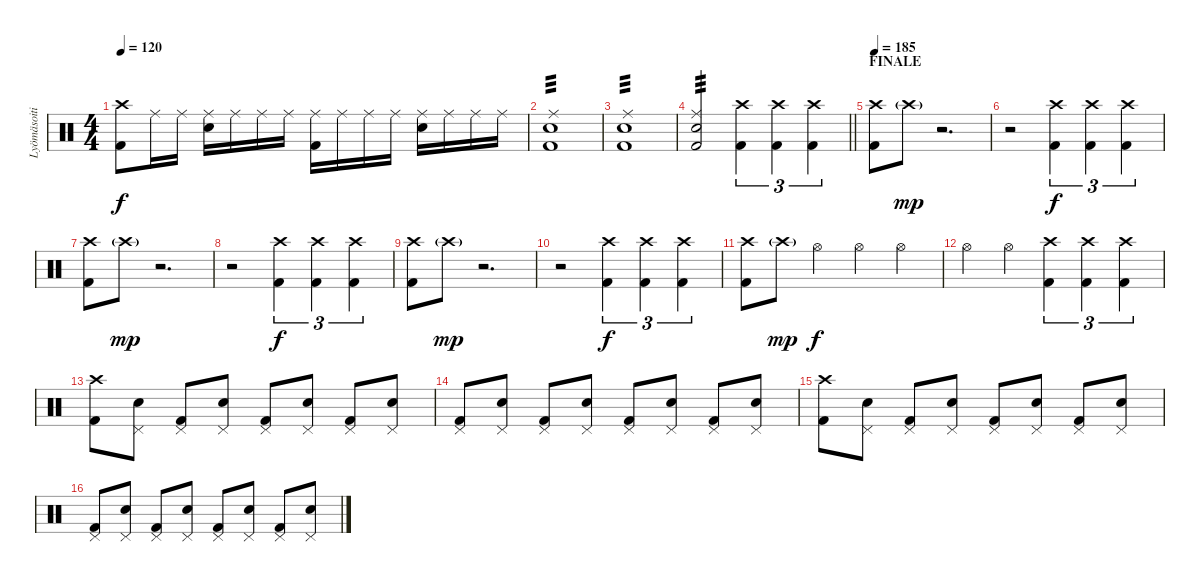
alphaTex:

\track ("Lyömäsoitin" "Lyömäsoiti") {instrument percussion}
\staff {score}
\articulation defaults
\ts (4 4)
\tempo 120
\clef neutral
\ks c
("Crash high (hit)" "Kick (hit) 2").8{dy f} "Ride (middle)".16 "Ride (middle)".16 ("Ride (middle)" "Electric Snare (hit)").16 "Ride (middle)".16 "Ride (middle)".16 "Ride (middle)".16 ("Ride (middle)" "Kick (hit) 2").16 "Ride (middle)".16 "Ride (middle)".16 "Ride (middle)".16 ("Ride (middle)" "Electric Snare (hit)").16 "Ride (middle)".16 "Ride (middle)".16 "Ride (middle)".16 |
("Ride (middle)" "Electric Snare (hit)" "Kick (hit) 2").1{tp 3} |
("Ride (middle)" "Electric Snare (hit)" "Kick (hit) 2").1{tp 3} |
\barLineRight lightlight
("Ride (middle)" "Electric Snare (hit)" "Kick (hit) 2").2{tp 3} ("Crash high (hit)" "Kick (hit) 2").4{tu (3 2)} ("Crash high (hit)" "Kick (hit) 2").4{tu (3 2)} ("Crash high (hit)" "Kick (hit) 2").4{tu (3 2)} |
\section ("" "FINALE")
\tempo 185
("Crash high (hit)" "Kick (hit) 2").8 "Crash high (hit)"{g}.8{dy mp} r.2{d} |
r.2 ("Crash high (hit)" "Kick (hit) 2").4{tu (3 2) dy f} ("Crash high (hit)" "Kick (hit) 2").4{tu (3 2)} ("Crash high (hit)" "Kick (hit) 2").4{tu (3 2)} |
("Crash high (hit)" "Kick (hit) 2").8 "Crash high (hit)"{g}.8{dy mp} r.2{d} |
r.2 ("Crash high (hit)" "Kick (hit) 2").4{tu (3 2) dy f} ("Crash high (hit)" "Kick (hit) 2").4{tu (3 2)} ("Crash high (hit)" "Kick (hit) 2").4{tu (3 2)} |
("Crash high (hit)" "Kick (hit) 2").8 "Crash high (hit)"{g}.8{dy mp} r.2{d} |
r.2 ("Crash high (hit)" "Kick (hit) 2").4{tu (3 2) dy f} ("Crash high (hit)" "Kick (hit) 2").4{tu (3 2)} ("Crash high (hit)" "Kick (hit) 2").4{tu (3 2)} |
("Crash high (hit)" "Kick (hit) 2").8 "Crash high (hit)"{g}.8{dy mp} "Hi-Hat (open)".4{dy f} "Hi-Hat (open)".4 "Hi-Hat (open)".4 |
"Hi-Hat (open)".4 "Hi-Hat (open)".4 ("Crash high (hit)" "Kick (hit) 2").4{tu (3 2)} ("Crash high (hit)" "Kick (hit) 2").4{tu (3 2)} ("Crash high (hit)" "Kick (hit) 2").4{tu (3 2)} |
("Crash high (hit)" "Kick (hit) 2").8 ("Pedal Hi-Hat (hit)" "Electric Snare (hit)").8 ("Pedal Hi-Hat (hit)" "Kick (hit) 2").8 ("Pedal Hi-Hat (hit)" "Electric Snare (hit)").8 ("Pedal Hi-Hat (hit)" "Kick (hit) 2").8 ("Pedal Hi-Hat (hit)" "Electric Snare (hit)").8 ("Pedal Hi-Hat (hit)" "Kick (hit) 2").8 ("Pedal Hi-Hat (hit)" "Electric Snare (hit)").8 |
("Pedal Hi-Hat (hit)" "Kick (hit) 2").8 ("Pedal Hi-Hat (hit)" "Electric Snare (hit)").8 ("Pedal Hi-Hat (hit)" "Kick (hit) 2").8 ("Pedal Hi-Hat (hit)" "Electric Snare (hit)").8 ("Pedal Hi-Hat (hit)" "Kick (hit) 2").8 ("Pedal Hi-Hat (hit)" "Electric Snare (hit)").8 ("Pedal Hi-Hat (hit)" "Kick (hit) 2").8 ("Pedal Hi-Hat (hit)" "Electric Snare (hit)").8 |
("Crash high (hit)" "Kick (hit) 2").8 ("Pedal Hi-Hat (hit)" "Electric Snare (hit)").8 ("Pedal Hi-Hat (hit)" "Kick (hit) 2").8 ("Pedal Hi-Hat (hit)" "Electric Snare (hit)").8 ("Pedal Hi-Hat (hit)" "Kick (hit) 2").8 ("Pedal Hi-Hat (hit)" "Electric Snare (hit)").8 ("Pedal Hi-Hat (hit)" "Kick (hit) 2").8 ("Pedal Hi-Hat (hit)" "Electric Snare (hit)").8 |
("Pedal Hi-Hat (hit)" "Kick (hit) 2").8 ("Pedal Hi-Hat (hit)" "Electric Snare (hit)").8 ("Pedal Hi-Hat (hit)" "Kick (hit) 2").8 ("Pedal Hi-Hat (hit)" "Electric Snare (hit)").8 ("Pedal Hi-Hat (hit)" "Kick (hit) 2").8 ("Pedal Hi-Hat (hit)" "Electric Snare (hit)").8 ("Pedal Hi-Hat (hit)" "Kick (hit) 2").8 ("Pedal Hi-Hat (hit)" "Electric Snare (hit)").8
